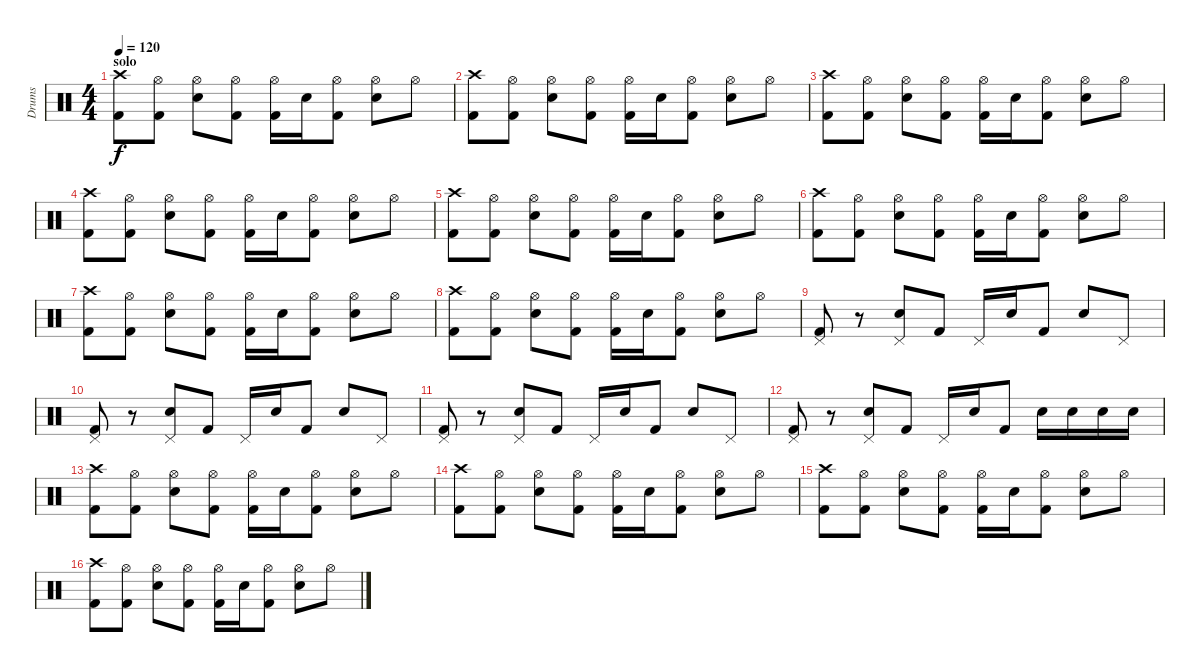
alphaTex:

\track ("Drums" "Drums") {instrument percussion}
\staff {score}
\articulation defaults
\ts (4 4)
\section ("" "solo")
\tempo 120
\clef neutral
\ks c
("Crash high (hit)" "Kick (hit) 2").8{dy f} ("Hi-Hat (open)" "Kick (hit) 2").8 ("Hi-Hat (open)" "Snare (hit) 2").8 ("Hi-Hat (open)" "Kick (hit) 2").8 ("Hi-Hat (open)" "Kick (hit) 2").16 "Snare (hit) 2".16 ("Hi-Hat (open)" "Kick (hit) 2").8 ("Hi-Hat (open)" "Snare (hit) 2").8 "Hi-Hat (open)".8 |
("Crash high (hit)" "Kick (hit) 2").8 ("Hi-Hat (open)" "Kick (hit) 2").8 ("Hi-Hat (open)" "Snare (hit) 2").8 ("Hi-Hat (open)" "Kick (hit) 2").8 ("Hi-Hat (open)" "Kick (hit) 2").16 "Snare (hit) 2".16 ("Hi-Hat (open)" "Kick (hit) 2").8 ("Hi-Hat (open)" "Snare (hit) 2").8 "Hi-Hat (open)".8 |
("Crash high (hit)" "Kick (hit) 2").8 ("Hi-Hat (open)" "Kick (hit) 2").8 ("Hi-Hat (open)" "Snare (hit) 2").8 ("Hi-Hat (open)" "Kick (hit) 2").8 ("Hi-Hat (open)" "Kick (hit) 2").16 "Snare (hit) 2".16 ("Hi-Hat (open)" "Kick (hit) 2").8 ("Hi-Hat (open)" "Snare (hit) 2").8 "Hi-Hat (open)".8 |
("Crash high (hit)" "Kick (hit) 2").8 ("Hi-Hat (open)" "Kick (hit) 2").8 ("Hi-Hat (open)" "Snare (hit) 2").8 ("Hi-Hat (open)" "Kick (hit) 2").8 ("Hi-Hat (open)" "Kick (hit) 2").16 "Snare (hit) 2".16 ("Hi-Hat (open)" "Kick (hit) 2").8 ("Hi-Hat (open)" "Snare (hit) 2").8 "Hi-Hat (open)".8 |
("Crash high (hit)" "Kick (hit) 2").8 ("Hi-Hat (open)" "Kick (hit) 2").8 ("Hi-Hat (open)" "Snare (hit) 2").8 ("Hi-Hat (open)" "Kick (hit) 2").8 ("Hi-Hat (open)" "Kick (hit) 2").16 "Snare (hit) 2".16 ("Hi-Hat (open)" "Kick (hit) 2").8 ("Hi-Hat (open)" "Snare (hit) 2").8 "Hi-Hat (open)".8 |
("Crash high (hit)" "Kick (hit) 2").8 ("Hi-Hat (open)" "Kick (hit) 2").8 ("Hi-Hat (open)" "Snare (hit) 2").8 ("Hi-Hat (open)" "Kick (hit) 2").8 ("Hi-Hat (open)" "Kick (hit) 2").16 "Snare (hit) 2".16 ("Hi-Hat (open)" "Kick (hit) 2").8 ("Hi-Hat (open)" "Snare (hit) 2").8 "Hi-Hat (open)".8 |
("Crash high (hit)" "Kick (hit) 2").8 ("Hi-Hat (open)" "Kick (hit) 2").8 ("Hi-Hat (open)" "Snare (hit) 2").8 ("Hi-Hat (open)" "Kick (hit) 2").8 ("Hi-Hat (open)" "Kick (hit) 2").16 "Snare (hit) 2".16 ("Hi-Hat (open)" "Kick (hit) 2").8 ("Hi-Hat (open)" "Snare (hit) 2").8 "Hi-Hat (open)".8 |
("Crash high (hit)" "Kick (hit) 2").8 ("Hi-Hat (open)" "Kick (hit) 2").8 ("Hi-Hat (open)" "Snare (hit) 2").8 ("Hi-Hat (open)" "Kick (hit) 2").8 ("Hi-Hat (open)" "Kick (hit) 2").16 "Snare (hit) 2".16 ("Hi-Hat (open)" "Kick (hit) 2").8 ("Hi-Hat (open)" "Snare (hit) 2").8 "Hi-Hat (open)".8 |
("Pedal Hi-Hat (hit)" "Kick (hit) 2").8 r.8 ("Pedal Hi-Hat (hit)" "Snare (hit) 2").8 "Kick (hit) 2".8 "Pedal Hi-Hat (hit)".16 "Snare (hit) 2".16 "Kick (hit) 2".8 "Snare (hit) 2".8 "Pedal Hi-Hat (hit)".8 |
("Pedal Hi-Hat (hit)" "Kick (hit) 2").8 r.8 ("Pedal Hi-Hat (hit)" "Snare (hit) 2").8 "Kick (hit) 2".8 "Pedal Hi-Hat (hit)".16 "Snare (hit) 2".16 "Kick (hit) 2".8 "Snare (hit) 2".8 "Pedal Hi-Hat (hit)".8 |
("Pedal Hi-Hat (hit)" "Kick (hit) 2").8 r.8 ("Pedal Hi-Hat (hit)" "Snare (hit) 2").8 "Kick (hit) 2".8 "Pedal Hi-Hat (hit)".16 "Snare (hit) 2".16 "Kick (hit) 2".8 "Snare (hit) 2".8 "Pedal Hi-Hat (hit)".8 |
("Pedal Hi-Hat (hit)" "Kick (hit) 2").8 r.8 ("Pedal Hi-Hat (hit)" "Snare (hit) 2").8 "Kick (hit) 2".8 "Pedal Hi-Hat (hit)".16 "Snare (hit) 2".16 "Kick (hit) 2".8 "Snare (hit) 2".16 "Snare (hit) 2".16 "Snare (hit) 2".16 "Snare (hit) 2".16 |
("Crash high (hit)" "Kick (hit) 2").8 ("Hi-Hat (open)" "Kick (hit) 2").8 ("Hi-Hat (open)" "Snare (hit) 2").8 ("Hi-Hat (open)" "Kick (hit) 2").8 ("Hi-Hat (open)" "Kick (hit) 2").16 "Snare (hit) 2".16 ("Hi-Hat (open)" "Kick (hit) 2").8 ("Hi-Hat (open)" "Snare (hit) 2").8 "Hi-Hat (open)".8 |
("Crash high (hit)" "Kick (hit) 2").8 ("Hi-Hat (open)" "Kick (hit) 2").8 ("Hi-Hat (open)" "Snare (hit) 2").8 ("Hi-Hat (open)" "Kick (hit) 2").8 ("Hi-Hat (open)" "Kick (hit) 2").16 "Snare (hit) 2".16 ("Hi-Hat (open)" "Kick (hit) 2").8 ("Hi-Hat (open)" "Snare (hit) 2").8 "Hi-Hat (open)".8 |
("Crash high (hit)" "Kick (hit) 2").8 ("Hi-Hat (open)" "Kick (hit) 2").8 ("Hi-Hat (open)" "Snare (hit) 2").8 ("Hi-Hat (open)" "Kick (hit) 2").8 ("Hi-Hat (open)" "Kick (hit) 2").16 "Snare (hit) 2".16 ("Hi-Hat (open)" "Kick (hit) 2").8 ("Hi-Hat (open)" "Snare (hit) 2").8 "Hi-Hat (open)".8 |
("Crash high (hit)" "Kick (hit) 2").8 ("Hi-Hat (open)" "Kick (hit) 2").8 ("Hi-Hat (open)" "Snare (hit) 2").8 ("Hi-Hat (open)" "Kick (hit) 2").8 ("Hi-Hat (open)" "Kick (hit) 2").16 "Snare (hit) 2".16 ("Hi-Hat (open)" "Kick (hit) 2").8 ("Hi-Hat (open)" "Snare (hit) 2").8 "Hi-Hat (open)".8
